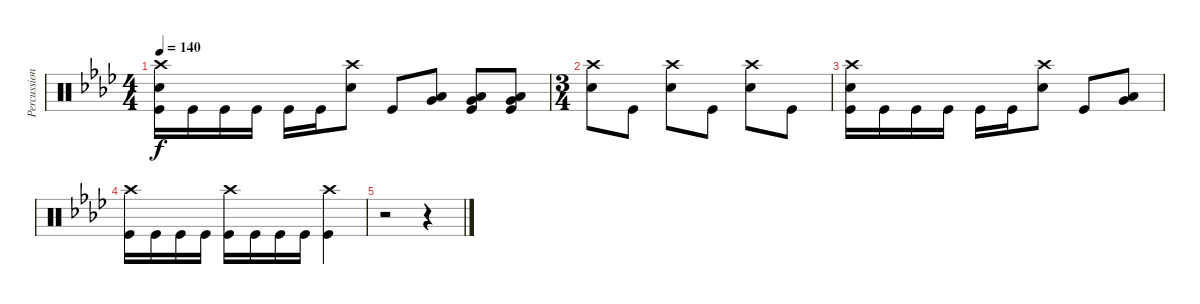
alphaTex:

\track ("Percussion" "Percussion") {instrument percussion}
\staff {score}
\articulation defaults
\ts (4 4)
\tempo 140
\clef neutral
\ks ab
("Crash high (hit)" "Snare (hit) 2" "Kick (hit)").16{dy f} "Kick (hit)".16 "Kick (hit)".16 "Kick (hit)".16 "Kick (hit)".16 "Kick (hit)".16 ("Snare (hit) 2" "Crash high (hit)").8 "Kick (hit)".8 ("Low Floor Tom (hit)" "Very Low Tom (hit)").8 ("Kick (hit)" "Low Floor Tom (hit)" "Very Low Tom (hit)").8 ("Low Floor Tom (hit)" "Very Low Tom (hit)" "Kick (hit)").8 |
\ts (3 4)
("Snare (hit) 2" "Crash high (hit)").8 "Kick (hit)".8 ("Snare (hit) 2" "Crash high (hit)").8 "Kick (hit)".8 ("Snare (hit) 2" "Crash high (hit)").8 "Kick (hit)".8 |
("Crash high (hit)" "Snare (hit) 2" "Kick (hit)").16 "Kick (hit)".16 "Kick (hit)".16 "Kick (hit)".16 "Kick (hit)".16 "Kick (hit)".16 ("Snare (hit) 2" "Crash high (hit)").8 "Kick (hit)".8 ("Low Floor Tom (hit)" "Very Low Tom (hit)").8 |
("Crash high (hit)" "Kick (hit)").16 "Kick (hit)".16 "Kick (hit)".16 "Kick (hit)".16 ("Crash high (hit)" "Kick (hit)").16 "Kick (hit)".16 "Kick (hit)".16 "Kick (hit)".16 ("Crash high (hit)" "Kick (hit)").4 |
r.2 r.4
